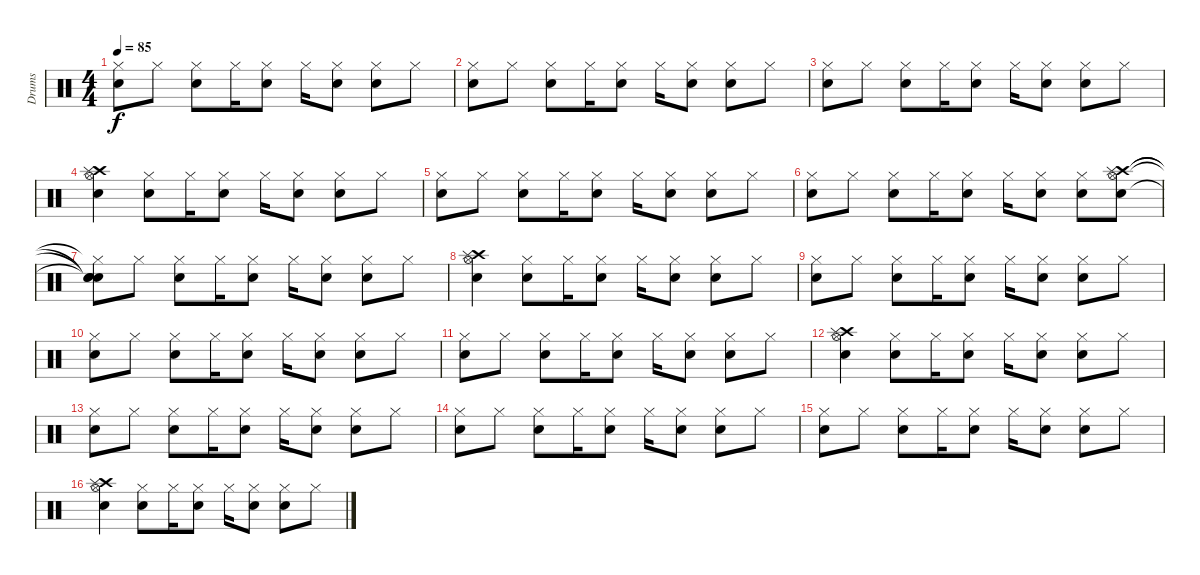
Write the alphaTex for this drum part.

\track ("Drums" "Drums") {instrument percussion}
\staff {score}
\articulation defaults
\ts (4 4)
\tempo 85
\clef neutral
\ks c
("Hi-Hat (closed)" "Snare (hit) 2").8{dy f} "Hi-Hat (closed)".8 ("Hi-Hat (closed)" "Snare (hit) 2").8 "Hi-Hat (closed)".16 ("Hi-Hat (closed)" "Snare (hit) 2").8 "Hi-Hat (closed)".16 ("Hi-Hat (closed)" "Snare (hit) 2").8 ("Hi-Hat (closed)" "Snare (hit) 2").8 "Hi-Hat (closed)".8 |
("Hi-Hat (closed)" "Snare (hit) 2").8 "Hi-Hat (closed)".8 ("Hi-Hat (closed)" "Snare (hit) 2").8 "Hi-Hat (closed)".16 ("Hi-Hat (closed)" "Snare (hit) 2").8 "Hi-Hat (closed)".16 ("Hi-Hat (closed)" "Snare (hit) 2").8 ("Hi-Hat (closed)" "Snare (hit) 2").8 "Hi-Hat (closed)".8 |
("Hi-Hat (closed)" "Snare (hit) 2").8 "Hi-Hat (closed)".8 ("Hi-Hat (closed)" "Snare (hit) 2").8 "Hi-Hat (closed)".16 ("Hi-Hat (closed)" "Snare (hit) 2").8 "Hi-Hat (closed)".16 ("Hi-Hat (closed)" "Snare (hit) 2").8 ("Hi-Hat (closed)" "Snare (hit) 2").8 "Hi-Hat (closed)".8 |
("Crash high (hit)" "Splash (hit)" "Snare (hit) 2" "Hi-Hat (open)").4 ("Hi-Hat (closed)" "Snare (hit) 2").8 "Hi-Hat (closed)".16 ("Hi-Hat (closed)" "Snare (hit) 2").8 "Hi-Hat (closed)".16 ("Hi-Hat (closed)" "Snare (hit) 2").8 ("Hi-Hat (closed)" "Snare (hit) 2").8 "Hi-Hat (closed)".8 |
("Hi-Hat (closed)" "Snare (hit) 2").8 "Hi-Hat (closed)".8 ("Hi-Hat (closed)" "Snare (hit) 2").8 "Hi-Hat (closed)".16 ("Hi-Hat (closed)" "Snare (hit) 2").8 "Hi-Hat (closed)".16 ("Hi-Hat (closed)" "Snare (hit) 2").8 ("Hi-Hat (closed)" "Snare (hit) 2").8 "Hi-Hat (closed)".8 |
("Hi-Hat (closed)" "Snare (hit) 2").8 "Hi-Hat (closed)".8 ("Hi-Hat (closed)" "Snare (hit) 2").8 "Hi-Hat (closed)".16 ("Hi-Hat (closed)" "Snare (hit) 2").8 "Hi-Hat (closed)".16 ("Hi-Hat (closed)" "Snare (hit) 2").8 ("Hi-Hat (closed)" "Snare (hit) 2").8 ("Crash high (hit)" "Splash (hit)" "Snare (hit) 2" "Hi-Hat (open)").8 |
("Hi-Hat (closed)"{t} "Snare (hit) 2"{t} "Snare (hit) 2"{t} "Snare (hit)"{t}).8 "Hi-Hat (closed)".8 ("Hi-Hat (closed)" "Snare (hit) 2").8 "Hi-Hat (closed)".16 ("Hi-Hat (closed)" "Snare (hit) 2").8 "Hi-Hat (closed)".16 ("Hi-Hat (closed)" "Snare (hit) 2").8 ("Hi-Hat (closed)" "Snare (hit) 2").8 "Hi-Hat (closed)".8 |
("Crash high (hit)" "Splash (hit)" "Snare (hit) 2" "Hi-Hat (open)").4 ("Hi-Hat (closed)" "Snare (hit) 2").8 "Hi-Hat (closed)".16 ("Hi-Hat (closed)" "Snare (hit) 2").8 "Hi-Hat (closed)".16 ("Hi-Hat (closed)" "Snare (hit) 2").8 ("Hi-Hat (closed)" "Snare (hit) 2").8 "Hi-Hat (closed)".8 |
("Hi-Hat (closed)" "Snare (hit) 2").8 "Hi-Hat (closed)".8 ("Hi-Hat (closed)" "Snare (hit) 2").8 "Hi-Hat (closed)".16 ("Hi-Hat (closed)" "Snare (hit) 2").8 "Hi-Hat (closed)".16 ("Hi-Hat (closed)" "Snare (hit) 2").8 ("Hi-Hat (closed)" "Snare (hit) 2").8 "Hi-Hat (closed)".8 |
("Hi-Hat (closed)" "Snare (hit) 2").8 "Hi-Hat (closed)".8 ("Hi-Hat (closed)" "Snare (hit) 2").8 "Hi-Hat (closed)".16 ("Hi-Hat (closed)" "Snare (hit) 2").8 "Hi-Hat (closed)".16 ("Hi-Hat (closed)" "Snare (hit) 2").8 ("Hi-Hat (closed)" "Snare (hit) 2").8 "Hi-Hat (closed)".8 |
("Hi-Hat (closed)" "Snare (hit) 2").8 "Hi-Hat (closed)".8 ("Hi-Hat (closed)" "Snare (hit) 2").8 "Hi-Hat (closed)".16 ("Hi-Hat (closed)" "Snare (hit) 2").8 "Hi-Hat (closed)".16 ("Hi-Hat (closed)" "Snare (hit) 2").8 ("Hi-Hat (closed)" "Snare (hit) 2").8 "Hi-Hat (closed)".8 |
("Crash high (hit)" "Splash (hit)" "Snare (hit) 2" "Hi-Hat (open)").4 ("Hi-Hat (closed)" "Snare (hit) 2").8 "Hi-Hat (closed)".16 ("Hi-Hat (closed)" "Snare (hit) 2").8 "Hi-Hat (closed)".16 ("Hi-Hat (closed)" "Snare (hit) 2").8 ("Hi-Hat (closed)" "Snare (hit) 2").8 "Hi-Hat (closed)".8 |
("Hi-Hat (closed)" "Snare (hit) 2").8 "Hi-Hat (closed)".8 ("Hi-Hat (closed)" "Snare (hit) 2").8 "Hi-Hat (closed)".16 ("Hi-Hat (closed)" "Snare (hit) 2").8 "Hi-Hat (closed)".16 ("Hi-Hat (closed)" "Snare (hit) 2").8 ("Hi-Hat (closed)" "Snare (hit) 2").8 "Hi-Hat (closed)".8 |
("Hi-Hat (closed)" "Snare (hit) 2").8 "Hi-Hat (closed)".8 ("Hi-Hat (closed)" "Snare (hit) 2").8 "Hi-Hat (closed)".16 ("Hi-Hat (closed)" "Snare (hit) 2").8 "Hi-Hat (closed)".16 ("Hi-Hat (closed)" "Snare (hit) 2").8 ("Hi-Hat (closed)" "Snare (hit) 2").8 "Hi-Hat (closed)".8 |
("Hi-Hat (closed)" "Snare (hit) 2").8 "Hi-Hat (closed)".8 ("Hi-Hat (closed)" "Snare (hit) 2").8 "Hi-Hat (closed)".16 ("Hi-Hat (closed)" "Snare (hit) 2").8 "Hi-Hat (closed)".16 ("Hi-Hat (closed)" "Snare (hit) 2").8 ("Hi-Hat (closed)" "Snare (hit) 2").8 "Hi-Hat (closed)".8 |
("Crash high (hit)" "Splash (hit)" "Snare (hit) 2" "Hi-Hat (open)").4 ("Hi-Hat (closed)" "Snare (hit) 2").8 "Hi-Hat (closed)".16 ("Hi-Hat (closed)" "Snare (hit) 2").8 "Hi-Hat (closed)".16 ("Hi-Hat (closed)" "Snare (hit) 2").8 ("Hi-Hat (closed)" "Snare (hit) 2").8 "Hi-Hat (closed)".8
